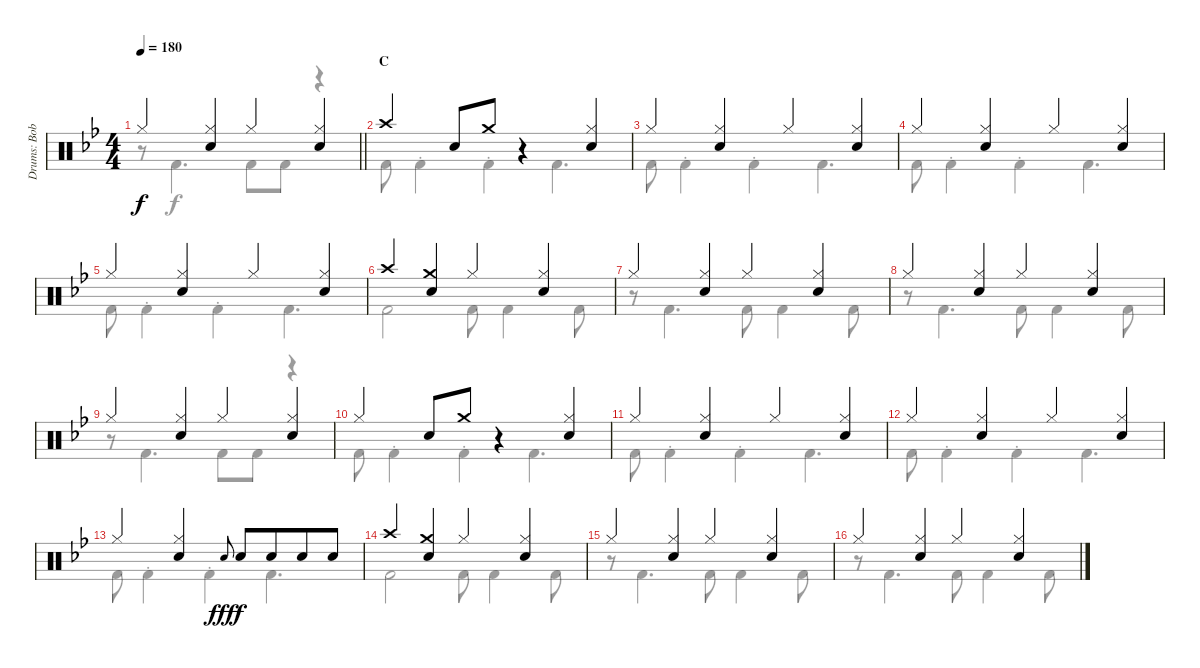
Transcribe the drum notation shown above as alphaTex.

\track ("Drums: Bobby" "Drums: Bob") {instrument percussion}
\staff {score}
\articulation defaults
\voice
\ts (4 4)
\tempo 180
\clef neutral
\barLineRight lightlight
\ks bb "Hi-Hat (closed)".4{dy f}
("Hi-Hat (closed)" "Snare (hit) 2").4 "Hi-Hat (closed)".4 ("Hi-Hat (closed)" "Snare (hit) 2").4 |
\section ("" "C")
"Crash high (hit)".4 "Snare (hit) 2".8 "Crash medium (hit)".8 r.4 ("Hi-Hat (closed)" "Snare (hit) 2").4 |
"Hi-Hat (closed)".4 ("Hi-Hat (closed)" "Snare (hit) 2").4 "Hi-Hat (closed)".4 ("Hi-Hat (closed)" "Snare (hit) 2").4 |
"Hi-Hat (closed)".4 ("Hi-Hat (closed)" "Snare (hit) 2").4 "Hi-Hat (closed)".4 ("Hi-Hat (closed)" "Snare (hit) 2").4 |
"Hi-Hat (closed)".4 ("Hi-Hat (closed)" "Snare (hit) 2").4 "Hi-Hat (closed)".4 ("Hi-Hat (closed)" "Snare (hit) 2").4 |
"Crash high (hit)".4 ("Crash medium (hit)" "Snare (hit) 2").4 "Hi-Hat (closed)".4 ("Hi-Hat (closed)" "Snare (hit) 2").4 |
"Hi-Hat (closed)".4 ("Hi-Hat (closed)" "Snare (hit) 2").4 "Hi-Hat (closed)".4 ("Hi-Hat (closed)" "Snare (hit) 2").4 |
"Hi-Hat (closed)".4 ("Hi-Hat (closed)" "Snare (hit) 2").4 "Hi-Hat (closed)".4 ("Hi-Hat (closed)" "Snare (hit) 2").4 |
"Hi-Hat (closed)".4 ("Hi-Hat (closed)" "Snare (hit) 2").4 "Hi-Hat (closed)".4 ("Hi-Hat (closed)" "Snare (hit) 2").4 |
"Hi-Hat (closed)".4 "Snare (hit) 2".8 "Crash medium (hit)".8 r.4 ("Hi-Hat (closed)" "Snare (hit) 2").4 |
"Hi-Hat (closed)".4 ("Hi-Hat (closed)" "Snare (hit) 2").4 "Hi-Hat (closed)".4 ("Hi-Hat (closed)" "Snare (hit) 2").4 |
"Hi-Hat (closed)".4 ("Hi-Hat (closed)" "Snare (hit) 2").4 "Hi-Hat (closed)".4 ("Hi-Hat (closed)" "Snare (hit) 2").4 |
"Hi-Hat (closed)".4 ("Hi-Hat (closed)" "Snare (hit) 2").4 "Electric Snare (hit)".8{gr onbeat dy fff} "Snare (hit) 2".8{dy f} "Snare (hit) 2".8{beam merge} "Snare (hit) 2".8 "Snare (hit) 2".8 |
"Crash high (hit)".4 ("Crash medium (hit)" "Snare (hit) 2").4 "Hi-Hat (closed)".4 ("Hi-Hat (closed)" "Snare (hit) 2").4 |
"Hi-Hat (closed)".4 ("Hi-Hat (closed)" "Snare (hit) 2").4 "Hi-Hat (closed)".4 ("Hi-Hat (closed)" "Snare (hit) 2").4 |
"Hi-Hat (closed)".4 ("Hi-Hat (closed)" "Snare (hit) 2").4 "Hi-Hat (closed)".4 ("Hi-Hat (closed)" "Snare (hit) 2").4
\voice
\clef neutral
\ottava regular
\simile none
\barLineRight lightlight
\ks bb
r.8{dy f} "Kick (hit) 2".4{d} "Kick (hit) 2".8 "Kick (hit) 2".8 r.4 |
"Kick (hit) 2".8 "Kick (hit) 2"{st}.4 "Kick (hit) 2"{st}.4 "Kick (hit) 2".4{d} |
"Kick (hit) 2".8 "Kick (hit) 2"{st}.4 "Kick (hit) 2"{st}.4 "Kick (hit) 2".4{d} |
"Kick (hit) 2".8 "Kick (hit) 2"{st}.4 "Kick (hit) 2"{st}.4 "Kick (hit) 2".4{d} |
"Kick (hit) 2".8 "Kick (hit) 2"{st}.4 "Kick (hit) 2"{st}.4 "Kick (hit) 2".4{d} |
"Kick (hit) 2".2 "Kick (hit) 2".8 "Kick (hit) 2".4 "Kick (hit) 2".8 |
r.8 "Kick (hit) 2".4{d} "Kick (hit) 2".8 "Kick (hit) 2".4 "Kick (hit) 2".8 |
r.8 "Kick (hit) 2".4{d} "Kick (hit) 2".8 "Kick (hit) 2".4 "Kick (hit) 2".8 |
r.8 "Kick (hit) 2".4{d} "Kick (hit) 2".8 "Kick (hit) 2".8 r.4 |
"Kick (hit) 2".8 "Kick (hit) 2"{st}.4 "Kick (hit) 2"{st}.4 "Kick (hit) 2".4{d} |
"Kick (hit) 2".8 "Kick (hit) 2"{st}.4 "Kick (hit) 2"{st}.4 "Kick (hit) 2".4{d} |
"Kick (hit) 2".8 "Kick (hit) 2"{st}.4 "Kick (hit) 2"{st}.4 "Kick (hit) 2".4{d} |
"Kick (hit) 2".8 "Kick (hit) 2"{st}.4 "Kick (hit) 2"{st}.4 "Kick (hit) 2".4{d} |
"Kick (hit) 2".2 "Kick (hit) 2".8 "Kick (hit) 2".4 "Kick (hit) 2".8 |
r.8 "Kick (hit) 2".4{d} "Kick (hit) 2".8 "Kick (hit) 2".4 "Kick (hit) 2".8 |
r.8 "Kick (hit) 2".4{d} "Kick (hit) 2".8 "Kick (hit) 2".4 "Kick (hit) 2".8
